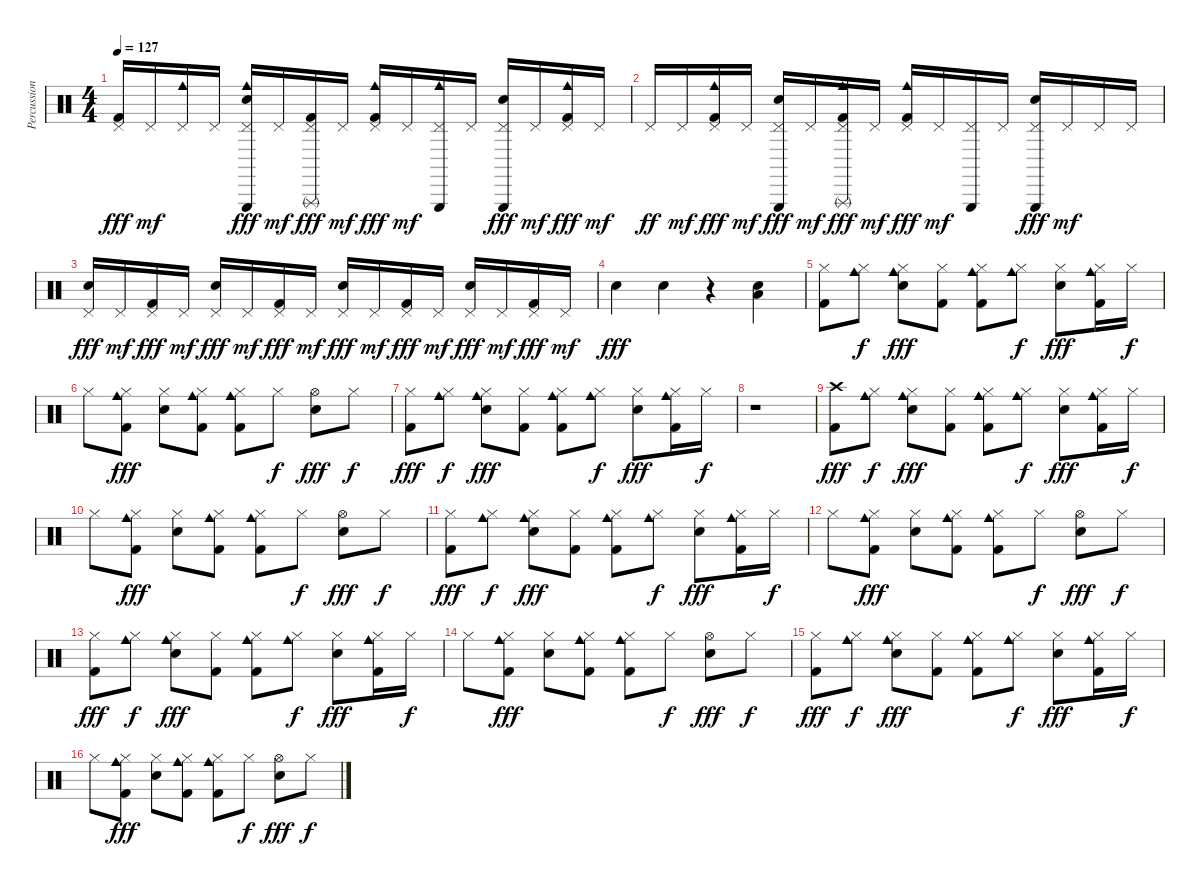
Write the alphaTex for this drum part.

\track ("Percussion" "Percussion") {instrument percussion}
\staff {score}
\articulation defaults
\ts (4 4)
\tempo 127
\clef neutral
\ks c
("Pedal Hi-Hat (hit)" "Kick (hit) 2").16{dy fff} "Pedal Hi-Hat (hit)".16{dy mf} ("Pedal Hi-Hat (hit)" "Cowbell medium (hit)").16 "Pedal Hi-Hat (hit)".16 ("Pedal Hi-Hat (hit)" "Triangle (hit)" "Electric Snare (hit)" "Cowbell medium (hit)").16{dy fff} "Pedal Hi-Hat (hit)".16{dy mf} ("Pedal Hi-Hat (hit)" "Triangle (rnute)" "Kick (hit) 2").16{dy fff} "Pedal Hi-Hat (hit)".16{dy mf} ("Pedal Hi-Hat (hit)" "Cowbell medium (hit)" "Kick (hit) 2").16{dy fff} "Pedal Hi-Hat (hit)".16{dy mf} ("Pedal Hi-Hat (hit)" "Triangle (hit)" "Cowbell medium (hit)").16 "Pedal Hi-Hat (hit)".16 ("Pedal Hi-Hat (hit)" "Triangle (hit)" "Electric Snare (hit)").16{dy fff} "Pedal Hi-Hat (hit)".16{dy mf} ("Pedal Hi-Hat (hit)" "Cowbell medium (hit)" "Kick (hit) 2").16{dy fff} "Pedal Hi-Hat (hit)".16{dy mf} |
"Pedal Hi-Hat (hit)".16{dy ff} "Pedal Hi-Hat (hit)".16{dy mf} ("Pedal Hi-Hat (hit)" "Cowbell medium (hit)" "Kick (hit) 2").16{dy fff} "Pedal Hi-Hat (hit)".16{dy mf} ("Pedal Hi-Hat (hit)" "Triangle (hit)" "Electric Snare (hit)").16{dy fff} "Pedal Hi-Hat (hit)".16{dy mf} ("Pedal Hi-Hat (hit)" "Triangle (rnute)" "Cowbell medium (hit)" "Kick (hit) 2").16{dy fff} "Pedal Hi-Hat (hit)".16{dy mf} ("Pedal Hi-Hat (hit)" "Cowbell medium (hit)" "Kick (hit) 2").16{dy fff} "Pedal Hi-Hat (hit)".16{dy mf} ("Pedal Hi-Hat (hit)" "Triangle (hit)").16 "Pedal Hi-Hat (hit)".16 ("Pedal Hi-Hat (hit)" "Triangle (hit)" "Electric Snare (hit)").16{dy fff} "Pedal Hi-Hat (hit)".16{dy mf} "Pedal Hi-Hat (hit)".16 "Pedal Hi-Hat (hit)".16 |
("Pedal Hi-Hat (hit)" "Electric Snare (hit)").16{dy fff} "Pedal Hi-Hat (hit)".16{dy mf} ("Pedal Hi-Hat (hit)" "Kick (hit) 2").16{dy fff} "Pedal Hi-Hat (hit)".16{dy mf} ("Pedal Hi-Hat (hit)" "Electric Snare (hit)").16{dy fff} "Pedal Hi-Hat (hit)".16{dy mf} ("Pedal Hi-Hat (hit)" "Kick (hit) 2").16{dy fff} "Pedal Hi-Hat (hit)".16{dy mf} ("Pedal Hi-Hat (hit)" "Electric Snare (hit)").16{dy fff} "Pedal Hi-Hat (hit)".16{dy mf} ("Pedal Hi-Hat (hit)" "Kick (hit) 2").16{dy fff} "Pedal Hi-Hat (hit)".16{dy mf} ("Pedal Hi-Hat (hit)" "Electric Snare (hit)").16{dy fff} "Pedal Hi-Hat (hit)".16{dy mf} ("Pedal Hi-Hat (hit)" "Kick (hit) 2").16{dy fff} "Pedal Hi-Hat (hit)".16{dy mf} |
"Electric Snare (hit)".4{dy fff} "Electric Snare (hit)".4 r.4 ("Electric Snare (hit)" "Low Tom (hit)").4 |
("Hi-Hat (closed)" "Kick (hit) 2").8 ("Hi-Hat (closed)" "Cowbell medium (hit)").8{dy f} ("Hi-Hat (closed)" "Cowbell medium (hit)" "Electric Snare (hit)").8{dy fff} ("Hi-Hat (closed)" "Kick (hit) 2").8 ("Hi-Hat (closed)" "Cowbell medium (hit)" "Kick (hit) 2").8 ("Hi-Hat (closed)" "Cowbell medium (hit)").8{dy f} ("Hi-Hat (closed)" "Electric Snare (hit)").8{dy fff} ("Hi-Hat (closed)" "Cowbell medium (hit)" "Kick (hit) 2").16 "Hi-Hat (closed)".16{dy f} |
"Hi-Hat (closed)".8 ("Hi-Hat (closed)" "Cowbell medium (hit)" "Kick (hit) 2").8{dy fff} ("Hi-Hat (closed)" "Electric Snare (hit)").8 ("Hi-Hat (closed)" "Cowbell medium (hit)" "Kick (hit) 2").8 ("Hi-Hat (closed)" "Cowbell medium (hit)" "Kick (hit) 2").8 "Hi-Hat (closed)".8{dy f} ("Hi-Hat (open)" "Electric Snare (hit)").8{dy fff} "Hi-Hat (closed)".8{dy f} |
("Hi-Hat (closed)" "Kick (hit) 2").8{dy fff} ("Hi-Hat (closed)" "Cowbell medium (hit)").8{dy f} ("Hi-Hat (closed)" "Cowbell medium (hit)" "Electric Snare (hit)").8{dy fff} ("Hi-Hat (closed)" "Kick (hit) 2").8 ("Hi-Hat (closed)" "Cowbell medium (hit)" "Kick (hit) 2").8 ("Hi-Hat (closed)" "Cowbell medium (hit)").8{dy f} ("Hi-Hat (closed)" "Electric Snare (hit)").8{dy fff} ("Hi-Hat (closed)" "Cowbell medium (hit)" "Kick (hit) 2").16 "Hi-Hat (closed)".16{dy f} |
r.1 |
("Crash high (hit)" "Kick (hit) 2").8{dy fff} ("Hi-Hat (closed)" "Cowbell medium (hit)").8{dy f} ("Hi-Hat (closed)" "Cowbell medium (hit)" "Electric Snare (hit)").8{dy fff} ("Hi-Hat (closed)" "Kick (hit) 2").8 ("Hi-Hat (closed)" "Cowbell medium (hit)" "Kick (hit) 2").8 ("Hi-Hat (closed)" "Cowbell medium (hit)").8{dy f} ("Hi-Hat (closed)" "Electric Snare (hit)").8{dy fff} ("Hi-Hat (closed)" "Cowbell medium (hit)" "Kick (hit) 2").16 "Hi-Hat (closed)".16{dy f} |
"Hi-Hat (closed)".8 ("Hi-Hat (closed)" "Cowbell medium (hit)" "Kick (hit) 2").8{dy fff} ("Hi-Hat (closed)" "Electric Snare (hit)").8 ("Hi-Hat (closed)" "Cowbell medium (hit)" "Kick (hit) 2").8 ("Hi-Hat (closed)" "Cowbell medium (hit)" "Kick (hit) 2").8 "Hi-Hat (closed)".8{dy f} ("Hi-Hat (open)" "Electric Snare (hit)").8{dy fff} "Hi-Hat (closed)".8{dy f} |
("Hi-Hat (closed)" "Kick (hit) 2").8{dy fff} ("Hi-Hat (closed)" "Cowbell medium (hit)").8{dy f} ("Hi-Hat (closed)" "Cowbell medium (hit)" "Electric Snare (hit)").8{dy fff} ("Hi-Hat (closed)" "Kick (hit) 2").8 ("Hi-Hat (closed)" "Cowbell medium (hit)" "Kick (hit) 2").8 ("Hi-Hat (closed)" "Cowbell medium (hit)").8{dy f} ("Hi-Hat (closed)" "Electric Snare (hit)").8{dy fff} ("Hi-Hat (closed)" "Cowbell medium (hit)" "Kick (hit) 2").16 "Hi-Hat (closed)".16{dy f} |
"Hi-Hat (closed)".8 ("Hi-Hat (closed)" "Cowbell medium (hit)" "Kick (hit) 2").8{dy fff} ("Hi-Hat (closed)" "Electric Snare (hit)").8 ("Hi-Hat (closed)" "Cowbell medium (hit)" "Kick (hit) 2").8 ("Hi-Hat (closed)" "Cowbell medium (hit)" "Kick (hit) 2").8 "Hi-Hat (closed)".8{dy f} ("Hi-Hat (open)" "Electric Snare (hit)").8{dy fff} "Hi-Hat (closed)".8{dy f} |
("Hi-Hat (closed)" "Kick (hit) 2").8{dy fff} ("Hi-Hat (closed)" "Cowbell medium (hit)").8{dy f} ("Hi-Hat (closed)" "Cowbell medium (hit)" "Electric Snare (hit)").8{dy fff} ("Hi-Hat (closed)" "Kick (hit) 2").8 ("Hi-Hat (closed)" "Cowbell medium (hit)" "Kick (hit) 2").8 ("Hi-Hat (closed)" "Cowbell medium (hit)").8{dy f} ("Hi-Hat (closed)" "Electric Snare (hit)").8{dy fff} ("Hi-Hat (closed)" "Cowbell medium (hit)" "Kick (hit) 2").16 "Hi-Hat (closed)".16{dy f} |
"Hi-Hat (closed)".8 ("Hi-Hat (closed)" "Cowbell medium (hit)" "Kick (hit) 2").8{dy fff} ("Hi-Hat (closed)" "Electric Snare (hit)").8 ("Hi-Hat (closed)" "Cowbell medium (hit)" "Kick (hit) 2").8 ("Hi-Hat (closed)" "Cowbell medium (hit)" "Kick (hit) 2").8 "Hi-Hat (closed)".8{dy f} ("Hi-Hat (open)" "Electric Snare (hit)").8{dy fff} "Hi-Hat (closed)".8{dy f} |
("Hi-Hat (closed)" "Kick (hit) 2").8{dy fff} ("Hi-Hat (closed)" "Cowbell medium (hit)").8{dy f} ("Hi-Hat (closed)" "Cowbell medium (hit)" "Electric Snare (hit)").8{dy fff} ("Hi-Hat (closed)" "Kick (hit) 2").8 ("Hi-Hat (closed)" "Cowbell medium (hit)" "Kick (hit) 2").8 ("Hi-Hat (closed)" "Cowbell medium (hit)").8{dy f} ("Hi-Hat (closed)" "Electric Snare (hit)").8{dy fff} ("Hi-Hat (closed)" "Cowbell medium (hit)" "Kick (hit) 2").16 "Hi-Hat (closed)".16{dy f} |
"Hi-Hat (closed)".8 ("Hi-Hat (closed)" "Cowbell medium (hit)" "Kick (hit) 2").8{dy fff} ("Hi-Hat (closed)" "Electric Snare (hit)").8 ("Hi-Hat (closed)" "Cowbell medium (hit)" "Kick (hit) 2").8 ("Hi-Hat (closed)" "Cowbell medium (hit)" "Kick (hit) 2").8 "Hi-Hat (closed)".8{dy f} ("Hi-Hat (open)" "Electric Snare (hit)").8{dy fff} "Hi-Hat (closed)".8{dy f}
